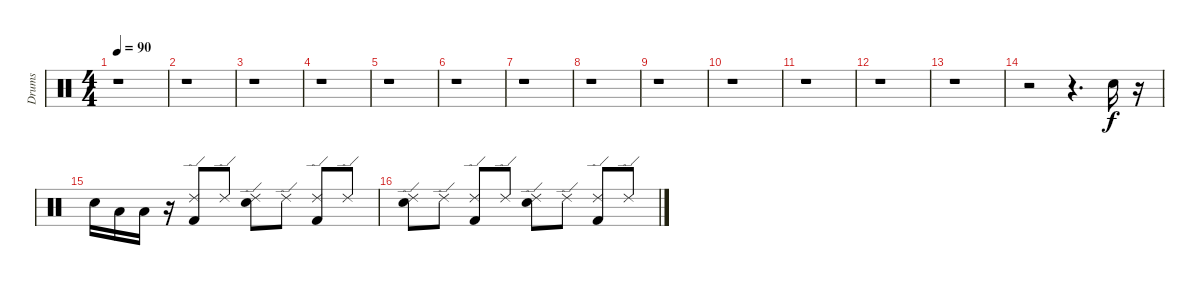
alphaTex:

\track ("Drums" "Drums") {instrument percussion}
\staff {score}
\articulation defaults
\ts (4 4)
\tempo 90
\clef neutral
\ks c
r.1{dy f} |
r.1 |
r.1 |
r.1 |
r.1 |
r.1 |
r.1 |
r.1 |
r.1 |
r.1 |
r.1 |
r.1 |
r.1 |
r.2 r.4{d} "Electric Snare (hit)".16 r.16 |
"Electric Snare (hit)".16 "Low Tom (hit)".16 "Low Floor Tom (hit)".16 r.16 ("Ride (edge) 2" "Kick (hit) 2").8 "Ride (edge) 2".8 ("Ride (edge) 2" "Electric Snare (hit)").8 "Ride (edge) 2".8 ("Ride (edge) 2" "Kick (hit) 2").8 "Ride (edge) 2".8 |
("Ride (edge) 2" "Electric Snare (hit)").8 "Ride (edge) 2".8 ("Ride (edge) 2" "Kick (hit) 2").8 "Ride (edge) 2".8 ("Ride (edge) 2" "Electric Snare (hit)").8 "Ride (edge) 2".8 ("Ride (edge) 2" "Kick (hit) 2").8 "Ride (edge) 2".8
